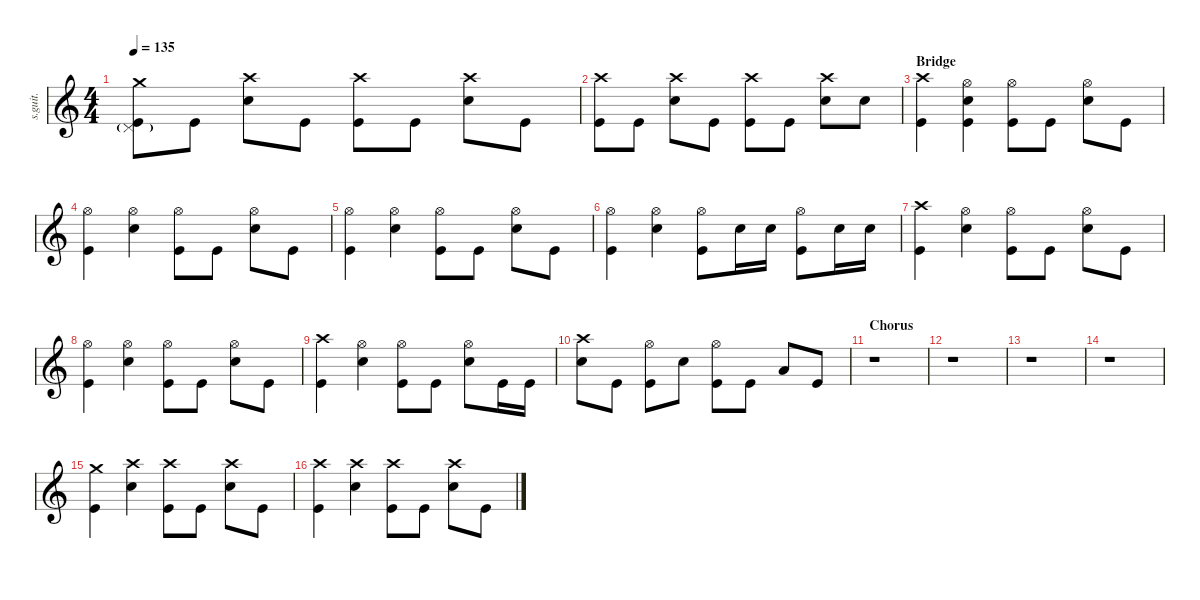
\defaultSystemsLayout 4
\hideDynamics
\bracketExtendMode nobrackets
\track ("Jen Ledger" "s.guit.") {instrument percussion}
\staff {score}
\articulation defaults
\ts (4 4)
\tempo 135
\clef g2
\ks c
("Crash medium (hit)" "Pedal Hi-Hat (hit)"{g} "Kick (hit)").8{lyrics (0 "") lyrics (1 "") lyrics (2 "") lyrics (3 "") lyrics (4 "") dy f} "Kick (hit)".8{lyrics (0 "") lyrics (1 "") lyrics (2 "") lyrics (3 "") lyrics (4 "") dy fff} ("Crash high (hit)" "Snare (hit) 2").8{lyrics (0 "") lyrics (1 "") lyrics (2 "") lyrics (3 "") lyrics (4 "") dy f} "Kick (hit)".8{lyrics (0 "") lyrics (1 "") lyrics (2 "") lyrics (3 "") lyrics (4 "") dy fff} ("Crash high (hit)" "Kick (hit)").8{lyrics (0 "") lyrics (1 "") lyrics (2 "") lyrics (3 "") lyrics (4 "")} "Kick (hit)".8{lyrics (0 "") lyrics (1 "") lyrics (2 "") lyrics (3 "") lyrics (4 "")} ("Crash high (hit)" "Snare (hit) 2").8{lyrics (0 "") lyrics (1 "") lyrics (2 "") lyrics (3 "") lyrics (4 "") dy f} "Kick (hit)".8{lyrics (0 "") lyrics (1 "") lyrics (2 "") lyrics (3 "") lyrics (4 "") dy fff} |
("Crash high (hit)" "Kick (hit)").8{lyrics (0 "") lyrics (1 "") lyrics (2 "") lyrics (3 "") lyrics (4 "")} "Kick (hit)".8{lyrics (0 "") lyrics (1 "") lyrics (2 "") lyrics (3 "") lyrics (4 "")} ("Crash high (hit)" "Snare (hit) 2").8{lyrics (0 "") lyrics (1 "") lyrics (2 "") lyrics (3 "") lyrics (4 "") dy f} "Kick (hit)".8{lyrics (0 "") lyrics (1 "") lyrics (2 "") lyrics (3 "") lyrics (4 "") dy fff} ("Crash high (hit)" "Kick (hit)").8{lyrics (0 "") lyrics (1 "") lyrics (2 "") lyrics (3 "") lyrics (4 "")} "Kick (hit)".8{lyrics (0 "") lyrics (1 "") lyrics (2 "") lyrics (3 "") lyrics (4 "")} ("Crash high (hit)" "Snare (hit) 2").8{lyrics (0 "") lyrics (1 "") lyrics (2 "") lyrics (3 "") lyrics (4 "") dy f} "Snare (hit) 2".8{lyrics (0 "") lyrics (1 "") lyrics (2 "") lyrics (3 "") lyrics (4 "")} |
\section ("" "Bridge")
("Crash high (hit)" "Kick (hit)").4{lyrics (0 "") lyrics (1 "") lyrics (2 "") lyrics (3 "") lyrics (4 "")} ("Hi-Hat (open)" "Snare (hit) 2" "Kick (hit)").4{lyrics (0 "") lyrics (1 "") lyrics (2 "") lyrics (3 "") lyrics (4 "")} ("Hi-Hat (open)" "Kick (hit)").8{lyrics (0 "") lyrics (1 "") lyrics (2 "") lyrics (3 "") lyrics (4 "")} "Kick (hit)".8{lyrics (0 "") lyrics (1 "") lyrics (2 "") lyrics (3 "") lyrics (4 "") dy fff} ("Hi-Hat (open)" "Snare (hit) 2").8{lyrics (0 "") lyrics (1 "") lyrics (2 "") lyrics (3 "") lyrics (4 "") dy f} "Kick (hit)".8{lyrics (0 "") lyrics (1 "") lyrics (2 "") lyrics (3 "") lyrics (4 "") dy fff} |
("Hi-Hat (open)" "Kick (hit)").4{lyrics (0 "") lyrics (1 "") lyrics (2 "") lyrics (3 "") lyrics (4 "")} ("Hi-Hat (open)" "Snare (hit) 2").4{lyrics (0 "") lyrics (1 "") lyrics (2 "") lyrics (3 "") lyrics (4 "") dy f} ("Hi-Hat (open)" "Kick (hit)").8{lyrics (0 "") lyrics (1 "") lyrics (2 "") lyrics (3 "") lyrics (4 "")} "Kick (hit)".8{lyrics (0 "") lyrics (1 "") lyrics (2 "") lyrics (3 "") lyrics (4 "") dy fff} ("Hi-Hat (open)" "Snare (hit) 2").8{lyrics (0 "") lyrics (1 "") lyrics (2 "") lyrics (3 "") lyrics (4 "") dy f} "Kick (hit)".8{lyrics (0 "") lyrics (1 "") lyrics (2 "") lyrics (3 "") lyrics (4 "") dy fff} |
("Hi-Hat (open)" "Kick (hit)").4{lyrics (0 "") lyrics (1 "") lyrics (2 "") lyrics (3 "") lyrics (4 "")} ("Hi-Hat (open)" "Snare (hit) 2").4{lyrics (0 "") lyrics (1 "") lyrics (2 "") lyrics (3 "") lyrics (4 "") dy f} ("Hi-Hat (open)" "Kick (hit)").8{lyrics (0 "") lyrics (1 "") lyrics (2 "") lyrics (3 "") lyrics (4 "")} "Kick (hit)".8{lyrics (0 "") lyrics (1 "") lyrics (2 "") lyrics (3 "") lyrics (4 "") dy fff} ("Hi-Hat (open)" "Snare (hit) 2").8{lyrics (0 "") lyrics (1 "") lyrics (2 "") lyrics (3 "") lyrics (4 "") dy f} "Kick (hit)".8{lyrics (0 "") lyrics (1 "") lyrics (2 "") lyrics (3 "") lyrics (4 "") dy fff} |
("Hi-Hat (open)" "Kick (hit)").4{lyrics (0 "") lyrics (1 "") lyrics (2 "") lyrics (3 "") lyrics (4 "")} ("Hi-Hat (open)" "Snare (hit) 2").4{lyrics (0 "") lyrics (1 "") lyrics (2 "") lyrics (3 "") lyrics (4 "") dy f} ("Hi-Hat (open)" "Kick (hit)").8{lyrics (0 "") lyrics (1 "") lyrics (2 "") lyrics (3 "") lyrics (4 "")} "Snare (hit) 2".16{lyrics (0 "") lyrics (1 "") lyrics (2 "") lyrics (3 "") lyrics (4 "")} "Snare (hit) 2".16{lyrics (0 "") lyrics (1 "") lyrics (2 "") lyrics (3 "") lyrics (4 "")} ("Hi-Hat (open)" "Kick (hit)").8{lyrics (0 "") lyrics (1 "") lyrics (2 "") lyrics (3 "") lyrics (4 "")} "Snare (hit) 2".16{lyrics (0 "") lyrics (1 "") lyrics (2 "") lyrics (3 "") lyrics (4 "")} "Snare (hit) 2".16{lyrics (0 "") lyrics (1 "") lyrics (2 "") lyrics (3 "") lyrics (4 "")} |
("Crash high (hit)" "Kick (hit)").4{lyrics (0 "") lyrics (1 "") lyrics (2 "") lyrics (3 "") lyrics (4 "")} ("Hi-Hat (open)" "Snare (hit) 2").4{lyrics (0 "") lyrics (1 "") lyrics (2 "") lyrics (3 "") lyrics (4 "")} ("Hi-Hat (open)" "Kick (hit)").8{lyrics (0 "") lyrics (1 "") lyrics (2 "") lyrics (3 "") lyrics (4 "")} "Kick (hit)".8{lyrics (0 "") lyrics (1 "") lyrics (2 "") lyrics (3 "") lyrics (4 "") dy fff} ("Hi-Hat (open)" "Snare (hit) 2").8{lyrics (0 "") lyrics (1 "") lyrics (2 "") lyrics (3 "") lyrics (4 "") dy f} "Kick (hit)".8{lyrics (0 "") lyrics (1 "") lyrics (2 "") lyrics (3 "") lyrics (4 "") dy fff} |
("Hi-Hat (open)" "Kick (hit)").4{lyrics (0 "") lyrics (1 "") lyrics (2 "") lyrics (3 "") lyrics (4 "")} ("Hi-Hat (open)" "Snare (hit) 2").4{lyrics (0 "") lyrics (1 "") lyrics (2 "") lyrics (3 "") lyrics (4 "") dy f} ("Hi-Hat (open)" "Kick (hit)").8{lyrics (0 "") lyrics (1 "") lyrics (2 "") lyrics (3 "") lyrics (4 "")} "Kick (hit)".8{lyrics (0 "") lyrics (1 "") lyrics (2 "") lyrics (3 "") lyrics (4 "") dy fff} ("Hi-Hat (open)" "Snare (hit) 2").8{lyrics (0 "") lyrics (1 "") lyrics (2 "") lyrics (3 "") lyrics (4 "") dy f} "Kick (hit)".8{lyrics (0 "") lyrics (1 "") lyrics (2 "") lyrics (3 "") lyrics (4 "") dy fff} |
("Crash high (hit)" "Kick (hit)").4{lyrics (0 "") lyrics (1 "") lyrics (2 "") lyrics (3 "") lyrics (4 "")} ("Hi-Hat (open)" "Snare (hit) 2").4{lyrics (0 "") lyrics (1 "") lyrics (2 "") lyrics (3 "") lyrics (4 "") dy f} ("Hi-Hat (open)" "Kick (hit)").8{lyrics (0 "") lyrics (1 "") lyrics (2 "") lyrics (3 "") lyrics (4 "")} "Kick (hit)".8{lyrics (0 "") lyrics (1 "") lyrics (2 "") lyrics (3 "") lyrics (4 "") dy fff} ("Hi-Hat (open)" "Snare (hit) 2").8{lyrics (0 "") lyrics (1 "") lyrics (2 "") lyrics (3 "") lyrics (4 "") dy f} "Kick (hit)".16{lyrics (0 "") lyrics (1 "") lyrics (2 "") lyrics (3 "") lyrics (4 "") dy fff} "Kick (hit)".16{lyrics (0 "") lyrics (1 "") lyrics (2 "") lyrics (3 "") lyrics (4 "")} |
("Crash high (hit)" "Snare (hit) 2").8{lyrics (0 "") lyrics (1 "") lyrics (2 "") lyrics (3 "") lyrics (4 "") dy f} "Kick (hit)".8{lyrics (0 "") lyrics (1 "") lyrics (2 "") lyrics (3 "") lyrics (4 "") dy fff} ("Hi-Hat (open)" "Kick (hit)").8{lyrics (0 "") lyrics (1 "") lyrics (2 "") lyrics (3 "") lyrics (4 "")} "Snare (hit) 2".8{lyrics (0 "") lyrics (1 "") lyrics (2 "") lyrics (3 "") lyrics (4 "") dy f} ("Hi-Hat (open)" "Kick (hit)").8{lyrics (0 "") lyrics (1 "") lyrics (2 "") lyrics (3 "") lyrics (4 "")} "Kick (hit)".8{lyrics (0 "") lyrics (1 "") lyrics (2 "") lyrics (3 "") lyrics (4 "") dy fff} "Low Tom (hit)".8{lyrics (0 "") lyrics (1 "") lyrics (2 "") lyrics (3 "") lyrics (4 "")} "Kick (hit)".8{lyrics (0 "") lyrics (1 "") lyrics (2 "") lyrics (3 "") lyrics (4 "")} |
\section ("" "Chorus")
r.1 |
r.1 |
r.1 |
r.1 |
("Crash medium (hit)" "Kick (hit)").4{lyrics (0 "") lyrics (1 "") lyrics (2 "") lyrics (3 "") lyrics (4 "")} ("Crash high (hit)" "Snare (hit) 2").4{lyrics (0 "") lyrics (1 "") lyrics (2 "") lyrics (3 "") lyrics (4 "") dy f} ("Crash high (hit)" "Kick (hit)").8{lyrics (0 "") lyrics (1 "") lyrics (2 "") lyrics (3 "") lyrics (4 "")} "Kick (hit)".8{lyrics (0 "") lyrics (1 "") lyrics (2 "") lyrics (3 "") lyrics (4 "") dy fff} ("Crash high (hit)" "Snare (hit) 2").8{lyrics (0 "") lyrics (1 "") lyrics (2 "") lyrics (3 "") lyrics (4 "") dy f} "Kick (hit)".8{lyrics (0 "") lyrics (1 "") lyrics (2 "") lyrics (3 "") lyrics (4 "") dy fff} |
("Crash high (hit)" "Kick (hit)").4{lyrics (0 "") lyrics (1 "") lyrics (2 "") lyrics (3 "") lyrics (4 "")} ("Crash high (hit)" "Snare (hit) 2").4{lyrics (0 "") lyrics (1 "") lyrics (2 "") lyrics (3 "") lyrics (4 "") dy f} ("Crash high (hit)" "Kick (hit)").8{lyrics (0 "") lyrics (1 "") lyrics (2 "") lyrics (3 "") lyrics (4 "")} "Kick (hit)".8{lyrics (0 "") lyrics (1 "") lyrics (2 "") lyrics (3 "") lyrics (4 "") dy fff} ("Crash high (hit)" "Snare (hit) 2").8{lyrics (0 "") lyrics (1 "") lyrics (2 "") lyrics (3 "") lyrics (4 "") dy f} "Kick (hit)".8{lyrics (0 "") lyrics (1 "") lyrics (2 "") lyrics (3 "") lyrics (4 "") dy fff}
